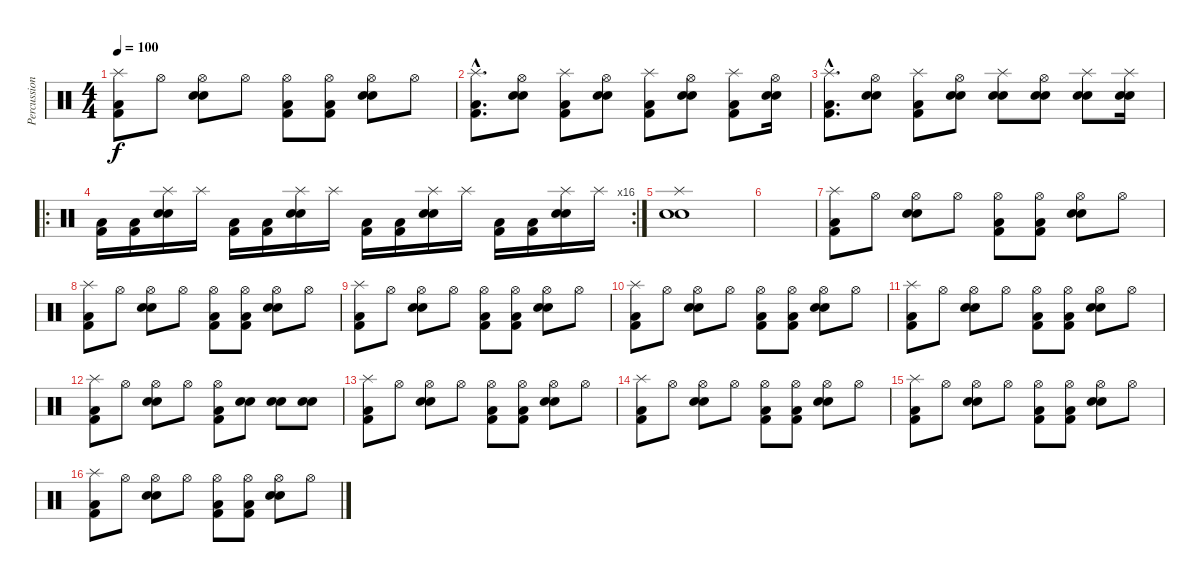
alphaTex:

\track ("Percussions" "Percussion") {instrument percussion}
\staff {score}
\articulation defaults
\ts (4 4)
\tempo 100
\clef neutral
\ks c
("Splash (hit)" "Kick (hit) 2" "Low Floor Tom (hit)").8{dy f} "Hi-Hat (open)".8 ("Hi-Hat (open)" "Snare (hit) 2" "Electric Snare (hit)").8 "Hi-Hat (open)".8 ("Hi-Hat (open)" "Kick (hit) 2" "Low Floor Tom (hit)").8 ("Hi-Hat (open)" "Kick (hit) 2" "Low Floor Tom (hit)").8 ("Hi-Hat (open)" "Snare (hit) 2" "Electric Snare (hit)").8 "Hi-Hat (open)".8 |
("Splash (hit)"{hac} "Kick (hit) 2"{hac} "Low Floor Tom (hit)"{hac}).8{d} ("Hi-Hat (open)" "Snare (hit) 2" "Electric Snare (hit)").8 ("Splash (hit)" "Kick (hit) 2" "Low Floor Tom (hit)").8 ("Hi-Hat (open)" "Snare (hit) 2" "Electric Snare (hit)").8 ("Splash (hit)" "Kick (hit) 2" "Low Floor Tom (hit)").8 ("Hi-Hat (open)" "Snare (hit) 2" "Electric Snare (hit)").8 ("Splash (hit)" "Kick (hit) 2" "Low Floor Tom (hit)").8 ("Hi-Hat (open)" "Snare (hit) 2" "Electric Snare (hit)").16 |
("Splash (hit)"{hac} "Kick (hit) 2"{hac} "Low Floor Tom (hit)"{hac}).8{d} ("Hi-Hat (open)" "Snare (hit) 2" "Electric Snare (hit)").8 ("Splash (hit)" "Kick (hit) 2" "Low Floor Tom (hit)").8 ("Hi-Hat (open)" "Snare (hit) 2" "Electric Snare (hit)").8 ("Splash (hit)" "Snare (hit) 2" "Electric Snare (hit)").8 ("Hi-Hat (open)" "Snare (hit) 2" "Electric Snare (hit)").8 ("Splash (hit)" "Snare (hit) 2" "Electric Snare (hit)").8 ("Splash (hit)" "Snare (hit) 2" "Electric Snare (hit)").16 |
\ro
\rc 16
("Low Floor Tom (hit)" "Kick (hit) 2").16 ("Low Floor Tom (hit)" "Kick (hit) 2").16 ("Splash (hit)" "Snare (hit) 2" "Electric Snare (hit)").16 "Splash (hit)".16 ("Low Floor Tom (hit)" "Kick (hit) 2").16 ("Low Floor Tom (hit)" "Kick (hit) 2").16 ("Splash (hit)" "Snare (hit) 2" "Electric Snare (hit)").16 "Splash (hit)".16 ("Low Floor Tom (hit)" "Kick (hit) 2").16 ("Low Floor Tom (hit)" "Kick (hit) 2").16 ("Splash (hit)" "Snare (hit) 2" "Electric Snare (hit)").16 "Splash (hit)".16 ("Low Floor Tom (hit)" "Kick (hit) 2").16 ("Low Floor Tom (hit)" "Kick (hit) 2").16 ("Splash (hit)" "Snare (hit) 2" "Electric Snare (hit)").16 "Splash (hit)".16 |
("Splash (hit)" "Snare (hit) 2" "Electric Snare (hit)").1 |
|
("Splash (hit)" "Kick (hit) 2" "Low Floor Tom (hit)").8 "Hi-Hat (open)".8 ("Hi-Hat (open)" "Snare (hit) 2" "Electric Snare (hit)").8 "Hi-Hat (open)".8 ("Hi-Hat (open)" "Kick (hit) 2" "Low Floor Tom (hit)").8 ("Hi-Hat (open)" "Kick (hit) 2" "Low Floor Tom (hit)").8 ("Hi-Hat (open)" "Snare (hit) 2" "Electric Snare (hit)").8 "Hi-Hat (open)".8 |
("Splash (hit)" "Kick (hit) 2" "Low Floor Tom (hit)").8 "Hi-Hat (open)".8 ("Hi-Hat (open)" "Snare (hit) 2" "Electric Snare (hit)").8 "Hi-Hat (open)".8 ("Hi-Hat (open)" "Kick (hit) 2" "Low Floor Tom (hit)").8 ("Hi-Hat (open)" "Kick (hit) 2" "Low Floor Tom (hit)").8 ("Hi-Hat (open)" "Snare (hit) 2" "Electric Snare (hit)").8 "Hi-Hat (open)".8 |
("Splash (hit)" "Kick (hit) 2" "Low Floor Tom (hit)").8 "Hi-Hat (open)".8 ("Hi-Hat (open)" "Snare (hit) 2" "Electric Snare (hit)").8 "Hi-Hat (open)".8 ("Hi-Hat (open)" "Kick (hit) 2" "Low Floor Tom (hit)").8 ("Hi-Hat (open)" "Kick (hit) 2" "Low Floor Tom (hit)").8 ("Hi-Hat (open)" "Snare (hit) 2" "Electric Snare (hit)").8 "Hi-Hat (open)".8 |
("Splash (hit)" "Kick (hit) 2" "Low Floor Tom (hit)").8 "Hi-Hat (open)".8 ("Hi-Hat (open)" "Snare (hit) 2" "Electric Snare (hit)").8 "Hi-Hat (open)".8 ("Hi-Hat (open)" "Kick (hit) 2" "Low Floor Tom (hit)").8 ("Hi-Hat (open)" "Kick (hit) 2" "Low Floor Tom (hit)").8 ("Hi-Hat (open)" "Snare (hit) 2" "Electric Snare (hit)").8 "Hi-Hat (open)".8 |
("Splash (hit)" "Kick (hit) 2" "Low Floor Tom (hit)").8 "Hi-Hat (open)".8 ("Hi-Hat (open)" "Snare (hit) 2" "Electric Snare (hit)").8 "Hi-Hat (open)".8 ("Hi-Hat (open)" "Kick (hit) 2" "Low Floor Tom (hit)").8 ("Hi-Hat (open)" "Kick (hit) 2" "Low Floor Tom (hit)").8 ("Hi-Hat (open)" "Snare (hit) 2" "Electric Snare (hit)").8 "Hi-Hat (open)".8 |
("Splash (hit)" "Kick (hit) 2" "Low Floor Tom (hit)").8 "Hi-Hat (open)".8 ("Hi-Hat (open)" "Snare (hit) 2" "Electric Snare (hit)").8 "Hi-Hat (open)".8 ("Hi-Hat (open)" "Kick (hit) 2" "Low Floor Tom (hit)").8 ("Snare (hit) 2" "Electric Snare (hit)").8 ("Snare (hit) 2" "Electric Snare (hit)").8 ("Snare (hit) 2" "Electric Snare (hit)").8 |
("Splash (hit)" "Kick (hit) 2" "Low Floor Tom (hit)").8 "Hi-Hat (open)".8 ("Hi-Hat (open)" "Snare (hit) 2" "Electric Snare (hit)").8 "Hi-Hat (open)".8 ("Hi-Hat (open)" "Kick (hit) 2" "Low Floor Tom (hit)").8 ("Hi-Hat (open)" "Kick (hit) 2" "Low Floor Tom (hit)").8 ("Hi-Hat (open)" "Snare (hit) 2" "Electric Snare (hit)").8 "Hi-Hat (open)".8 |
("Splash (hit)" "Kick (hit) 2" "Low Floor Tom (hit)").8 "Hi-Hat (open)".8 ("Hi-Hat (open)" "Snare (hit) 2" "Electric Snare (hit)").8 "Hi-Hat (open)".8 ("Hi-Hat (open)" "Kick (hit) 2" "Low Floor Tom (hit)").8 ("Hi-Hat (open)" "Kick (hit) 2" "Low Floor Tom (hit)").8 ("Hi-Hat (open)" "Snare (hit) 2" "Electric Snare (hit)").8 "Hi-Hat (open)".8 |
("Splash (hit)" "Kick (hit) 2" "Low Floor Tom (hit)").8 "Hi-Hat (open)".8 ("Hi-Hat (open)" "Snare (hit) 2" "Electric Snare (hit)").8 "Hi-Hat (open)".8 ("Hi-Hat (open)" "Kick (hit) 2" "Low Floor Tom (hit)").8 ("Hi-Hat (open)" "Kick (hit) 2" "Low Floor Tom (hit)").8 ("Hi-Hat (open)" "Snare (hit) 2" "Electric Snare (hit)").8 "Hi-Hat (open)".8 |
("Splash (hit)" "Kick (hit) 2" "Low Floor Tom (hit)").8 "Hi-Hat (open)".8 ("Hi-Hat (open)" "Snare (hit) 2" "Electric Snare (hit)").8 "Hi-Hat (open)".8 ("Hi-Hat (open)" "Kick (hit) 2" "Low Floor Tom (hit)").8 ("Hi-Hat (open)" "Kick (hit) 2" "Low Floor Tom (hit)").8 ("Hi-Hat (open)" "Snare (hit) 2" "Electric Snare (hit)").8 "Hi-Hat (open)".8
